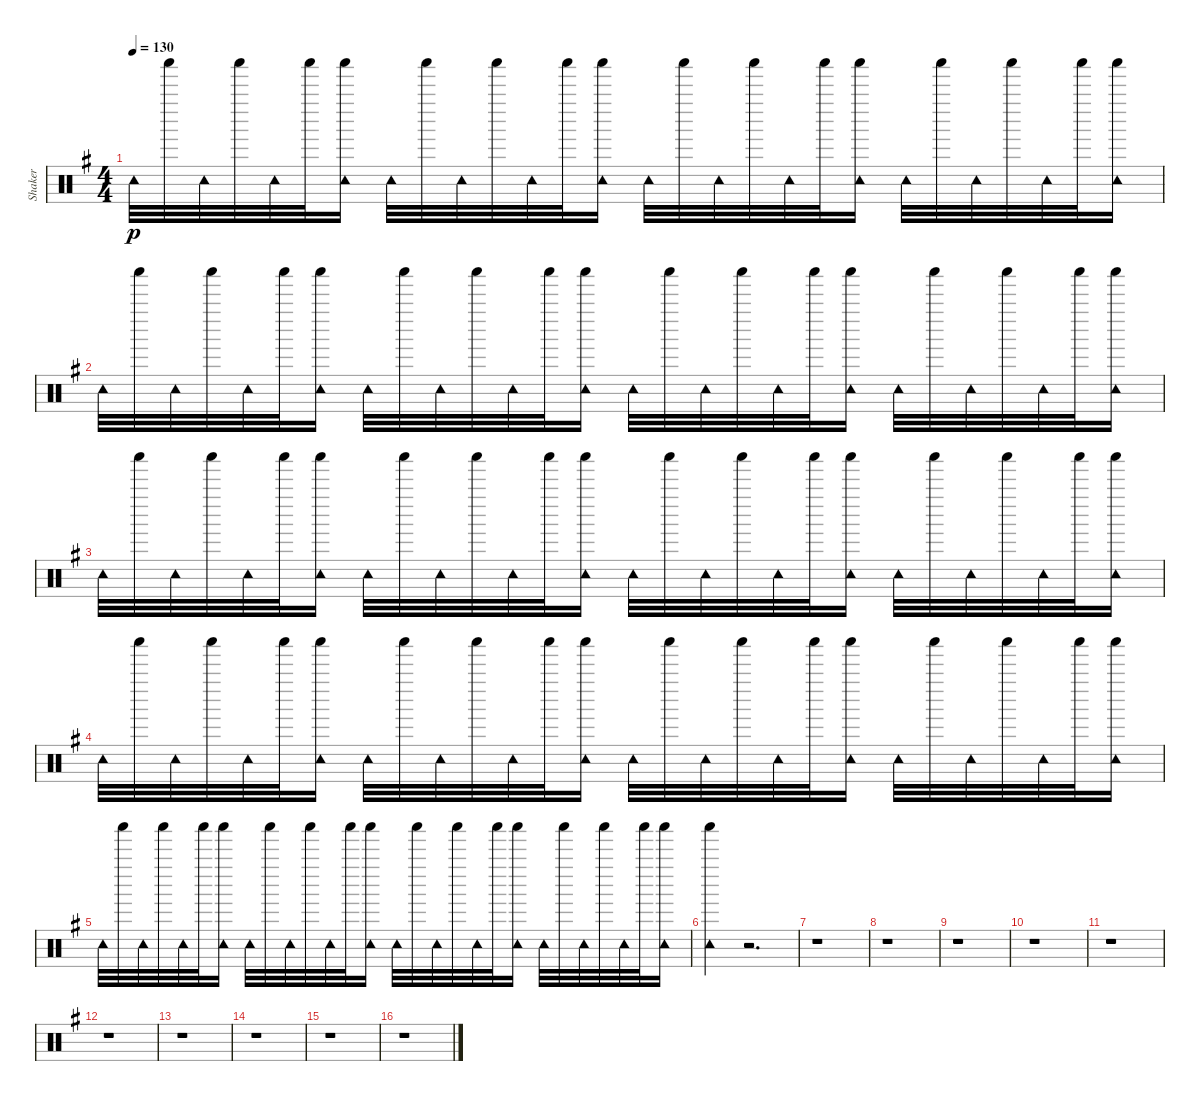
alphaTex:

\track ("Shaker" "Shaker") {instrument percussion}
\staff {score}
\articulation defaults
\ts (4 4)
\tempo 130
\clef neutral
\ks g "Tambourine (hit)".32{dy p} "Shaker (hit)".32 "Tambourine (hit)".32 "Shaker (hit)".32 "Tambourine (hit)".32 "Shaker (hit)".32
("Tambourine (hit)" "Shaker (hit)").16 "Tambourine (hit)".32 "Shaker (hit)".32 "Tambourine (hit)".32 "Shaker (hit)".32 "Tambourine (hit)".32 "Shaker (hit)".32 ("Tambourine (hit)" "Shaker (hit)").16 "Tambourine (hit)".32 "Shaker (hit)".32 "Tambourine (hit)".32 "Shaker (hit)".32 "Tambourine (hit)".32 "Shaker (hit)".32 ("Tambourine (hit)" "Shaker (hit)").16 "Tambourine (hit)".32 "Shaker (hit)".32 "Tambourine (hit)".32 "Shaker (hit)".32 "Tambourine (hit)".32 "Shaker (hit)".32 ("Tambourine (hit)" "Shaker (hit)").16 |
"Tambourine (hit)".32 "Shaker (hit)".32 "Tambourine (hit)".32 "Shaker (hit)".32 "Tambourine (hit)".32 "Shaker (hit)".32 ("Tambourine (hit)" "Shaker (hit)").16 "Tambourine (hit)".32 "Shaker (hit)".32 "Tambourine (hit)".32 "Shaker (hit)".32 "Tambourine (hit)".32 "Shaker (hit)".32 ("Tambourine (hit)" "Shaker (hit)").16 "Tambourine (hit)".32 "Shaker (hit)".32 "Tambourine (hit)".32 "Shaker (hit)".32 "Tambourine (hit)".32 "Shaker (hit)".32 ("Tambourine (hit)" "Shaker (hit)").16 "Tambourine (hit)".32 "Shaker (hit)".32 "Tambourine (hit)".32 "Shaker (hit)".32 "Tambourine (hit)".32 "Shaker (hit)".32 ("Tambourine (hit)" "Shaker (hit)").16 |
"Tambourine (hit)".32 "Shaker (hit)".32 "Tambourine (hit)".32 "Shaker (hit)".32 "Tambourine (hit)".32 "Shaker (hit)".32 ("Tambourine (hit)" "Shaker (hit)").16 "Tambourine (hit)".32 "Shaker (hit)".32 "Tambourine (hit)".32 "Shaker (hit)".32 "Tambourine (hit)".32 "Shaker (hit)".32 ("Tambourine (hit)" "Shaker (hit)").16 "Tambourine (hit)".32 "Shaker (hit)".32 "Tambourine (hit)".32 "Shaker (hit)".32 "Tambourine (hit)".32 "Shaker (hit)".32 ("Tambourine (hit)" "Shaker (hit)").16 "Tambourine (hit)".32 "Shaker (hit)".32 "Tambourine (hit)".32 "Shaker (hit)".32 "Tambourine (hit)".32 "Shaker (hit)".32 ("Tambourine (hit)" "Shaker (hit)").16 |
"Tambourine (hit)".32 "Shaker (hit)".32 "Tambourine (hit)".32 "Shaker (hit)".32 "Tambourine (hit)".32 "Shaker (hit)".32 ("Tambourine (hit)" "Shaker (hit)").16 "Tambourine (hit)".32 "Shaker (hit)".32 "Tambourine (hit)".32 "Shaker (hit)".32 "Tambourine (hit)".32 "Shaker (hit)".32 ("Tambourine (hit)" "Shaker (hit)").16 "Tambourine (hit)".32 "Shaker (hit)".32 "Tambourine (hit)".32 "Shaker (hit)".32 "Tambourine (hit)".32 "Shaker (hit)".32 ("Tambourine (hit)" "Shaker (hit)").16 "Tambourine (hit)".32 "Shaker (hit)".32 "Tambourine (hit)".32 "Shaker (hit)".32 "Tambourine (hit)".32 "Shaker (hit)".32 ("Tambourine (hit)" "Shaker (hit)").16 |
"Tambourine (hit)".32 "Shaker (hit)".32 "Tambourine (hit)".32 "Shaker (hit)".32 "Tambourine (hit)".32 "Shaker (hit)".32 ("Tambourine (hit)" "Shaker (hit)").16 "Tambourine (hit)".32 "Shaker (hit)".32 "Tambourine (hit)".32 "Shaker (hit)".32 "Tambourine (hit)".32 "Shaker (hit)".32 ("Tambourine (hit)" "Shaker (hit)").16 "Tambourine (hit)".32 "Shaker (hit)".32 "Tambourine (hit)".32 "Shaker (hit)".32 "Tambourine (hit)".32 "Shaker (hit)".32 ("Tambourine (hit)" "Shaker (hit)").16 "Tambourine (hit)".32 "Shaker (hit)".32 "Tambourine (hit)".32 "Shaker (hit)".32 "Tambourine (hit)".32 "Shaker (hit)".32 ("Tambourine (hit)" "Shaker (hit)").16 |
("Shaker (hit)" "Tambourine (hit)").4 r.2{d} |
r.1 |
r.1 |
r.1 |
r.1 |
r.1 |
r.1 |
r.1 |
r.1 |
r.1 |
r.1
